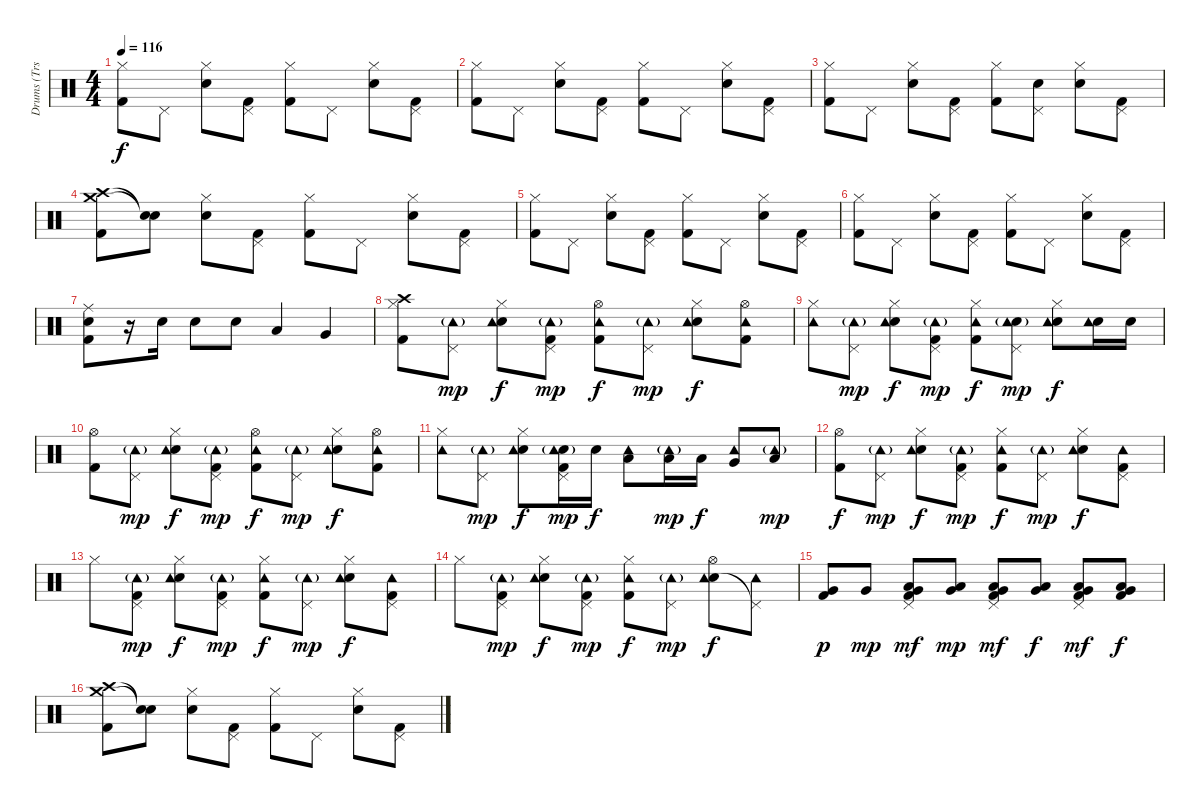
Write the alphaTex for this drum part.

\track ("Drums (Trs. 7-8A, 10A/7-8B, 10B, 12-13B)" "Drums (Trs") {mute instrument percussion}
\staff {score}
\articulation defaults
\ts (4 4)
\tempo 116
\clef neutral
\ks c
("Hi-Hat (closed)" "Kick (hit) 2").8{dy f} "Pedal Hi-Hat (hit)".8 ("Electric Snare (hit)" "Hi-Hat (closed)").8 ("Pedal Hi-Hat (hit)" "Kick (hit) 2").8 ("Hi-Hat (closed)" "Kick (hit) 2").8 "Pedal Hi-Hat (hit)".8 ("Electric Snare (hit)" "Hi-Hat (closed)").8 ("Pedal Hi-Hat (hit)" "Kick (hit) 2").8 |
("Hi-Hat (closed)" "Kick (hit) 2").8 "Pedal Hi-Hat (hit)".8 ("Electric Snare (hit)" "Hi-Hat (closed)").8 ("Pedal Hi-Hat (hit)" "Kick (hit) 2").8 ("Hi-Hat (closed)" "Kick (hit) 2").8 "Pedal Hi-Hat (hit)".8 ("Electric Snare (hit)" "Hi-Hat (closed)").8 ("Pedal Hi-Hat (hit)" "Kick (hit) 2").8 |
("Hi-Hat (closed)" "Kick (hit) 2").8 "Pedal Hi-Hat (hit)".8 ("Electric Snare (hit)" "Hi-Hat (closed)").8 ("Pedal Hi-Hat (hit)" "Kick (hit) 2").8 ("Hi-Hat (closed)" "Kick (hit) 2").8 ("Electric Snare (hit)" "Pedal Hi-Hat (hit)").8 ("Electric Snare (hit)" "Hi-Hat (closed)").8 ("Pedal Hi-Hat (hit)" "Kick (hit) 2").8 |
("Crash medium (hit)" "Crash high (hit)" "Kick (hit) 2").8 ("Snare (hit)"{t} "Snare (hit)"{t}).8 ("Electric Snare (hit)" "Hi-Hat (closed)").8 ("Pedal Hi-Hat (hit)" "Kick (hit) 2").8 ("Hi-Hat (closed)" "Kick (hit) 2").8 "Pedal Hi-Hat (hit)".8 ("Electric Snare (hit)" "Hi-Hat (closed)").8 ("Pedal Hi-Hat (hit)" "Kick (hit) 2").8 |
("Hi-Hat (closed)" "Kick (hit) 2").8 "Pedal Hi-Hat (hit)".8 ("Electric Snare (hit)" "Hi-Hat (closed)").8 ("Pedal Hi-Hat (hit)" "Kick (hit) 2").8 ("Hi-Hat (closed)" "Kick (hit) 2").8 "Pedal Hi-Hat (hit)".8 ("Electric Snare (hit)" "Hi-Hat (closed)").8 ("Pedal Hi-Hat (hit)" "Kick (hit) 2").8 |
("Hi-Hat (closed)" "Kick (hit) 2").8 "Pedal Hi-Hat (hit)".8 ("Electric Snare (hit)" "Hi-Hat (closed)").8 ("Pedal Hi-Hat (hit)" "Kick (hit) 2").8 ("Hi-Hat (closed)" "Kick (hit) 2").8 "Pedal Hi-Hat (hit)".8 ("Electric Snare (hit)" "Hi-Hat (closed)").8 ("Pedal Hi-Hat (hit)" "Kick (hit) 2").8 |
("Ride (middle)" "Electric Snare (hit)" "Kick (hit) 2").8 r.16 "Electric Snare (hit)".16 "Electric Snare (hit)".8 "Electric Snare (hit)".8 "Low Tom (hit)".4 "Very Low Tom (hit)".4 |
("Crash high (hit)" "Hi-Hat (closed)" "Kick (hit) 2").8 ("Pedal Hi-Hat (hit)" "Tambourine (hit)"{g}).8{dy mp} ("Electric Snare (hit)" "Hi-Hat (closed)" "Tambourine (hit)").8{dy f} ("Pedal Hi-Hat (hit)" "Tambourine (hit)"{g} "Kick (hit) 2").8{dy mp} ("Hi-Hat (open)" "Tambourine (hit)" "Kick (hit) 2").8{dy f} ("Pedal Hi-Hat (hit)" "Tambourine (hit)"{g}).8{dy mp} ("Electric Snare (hit)" "Hi-Hat (closed)" "Tambourine (hit)").8{dy f} ("Hi-Hat (open)" "Tambourine (hit)" "Kick (hit) 2").8 |
("Hi-Hat (closed)" "Tambourine (hit)").8 ("Pedal Hi-Hat (hit)" "Tambourine (hit)"{g}).8{dy mp} ("Electric Snare (hit)" "Hi-Hat (closed)" "Tambourine (hit)").8{dy f} ("Pedal Hi-Hat (hit)" "Tambourine (hit)"{g} "Kick (hit) 2").8{dy mp} ("Hi-Hat (closed)" "Tambourine (hit)" "Kick (hit) 2").8{dy f} ("Electric Snare (hit)" "Pedal Hi-Hat (hit)" "Tambourine (hit)"{g}).8{dy mp} ("Electric Snare (hit)" "Hi-Hat (closed)" "Tambourine (hit)").8{dy f} ("Electric Snare (hit)" "Tambourine (hit)").16 "Electric Snare (hit)".16 |
("Hi-Hat (open)" "Kick (hit) 2").8 ("Pedal Hi-Hat (hit)" "Tambourine (hit)"{g}).8{dy mp} ("Electric Snare (hit)" "Hi-Hat (closed)" "Tambourine (hit)").8{dy f} ("Pedal Hi-Hat (hit)" "Tambourine (hit)"{g} "Kick (hit) 2").8{dy mp} ("Hi-Hat (open)" "Tambourine (hit)" "Kick (hit) 2").8{dy f} ("Pedal Hi-Hat (hit)" "Tambourine (hit)"{g}).8{dy mp} ("Electric Snare (hit)" "Hi-Hat (closed)" "Tambourine (hit)").8{dy f} ("Hi-Hat (open)" "Tambourine (hit)" "Kick (hit) 2").8 |
("Hi-Hat (closed)" "Tambourine (hit)").8 ("Pedal Hi-Hat (hit)" "Tambourine (hit)"{g}).8{dy mp} ("Electric Snare (hit)" "Hi-Hat (closed)" "Tambourine (hit)").8{dy f} ("Electric Snare (hit)" "Pedal Hi-Hat (hit)" "Tambourine (hit)"{g} "Kick (hit) 2").16{dy mp} "Electric Snare (hit)".16{dy f} ("Tambourine (hit)" "Low Tom (hit)").8 ("Tambourine (hit)"{g} "Low Tom (hit)").16{dy mp} "Low Tom (hit)".16{dy f} ("Tambourine (hit)" "Very Low Tom (hit)").8 ("Tambourine (hit)"{g} "Low Floor Tom (hit)").8{dy mp} |
("Hi-Hat (open)" "Kick (hit) 2").8{dy f} ("Pedal Hi-Hat (hit)" "Tambourine (hit)"{g}).8{dy mp} ("Electric Snare (hit)" "Hi-Hat (closed)" "Tambourine (hit)").8{dy f} ("Pedal Hi-Hat (hit)" "Tambourine (hit)"{g} "Kick (hit) 2").8{dy mp} ("Hi-Hat (closed)" "Tambourine (hit)" "Kick (hit) 2").8{dy f} ("Pedal Hi-Hat (hit)" "Tambourine (hit)"{g}).8{dy mp} ("Electric Snare (hit)" "Hi-Hat (closed)" "Tambourine (hit)").8{dy f} ("Pedal Hi-Hat (hit)" "Tambourine (hit)" "Kick (hit) 2").8 |
"Hi-Hat (closed)".8 ("Pedal Hi-Hat (hit)" "Tambourine (hit)"{g} "Kick (hit) 2").8{dy mp} ("Electric Snare (hit)" "Hi-Hat (closed)" "Tambourine (hit)").8{dy f} ("Pedal Hi-Hat (hit)" "Tambourine (hit)"{g} "Kick (hit) 2").8{dy mp} ("Hi-Hat (closed)" "Tambourine (hit)" "Kick (hit) 2").8{dy f} ("Pedal Hi-Hat (hit)" "Tambourine (hit)"{g}).8{dy mp} ("Electric Snare (hit)" "Hi-Hat (closed)" "Tambourine (hit)").8{dy f} ("Pedal Hi-Hat (hit)" "Tambourine (hit)" "Kick (hit) 2").8 |
"Hi-Hat (closed)".8 ("Pedal Hi-Hat (hit)" "Tambourine (hit)"{g} "Kick (hit) 2").8{dy mp} ("Electric Snare (hit)" "Hi-Hat (closed)" "Tambourine (hit)").8{dy f} ("Pedal Hi-Hat (hit)" "Tambourine (hit)"{g} "Kick (hit) 2").8{dy mp} ("Hi-Hat (closed)" "Tambourine (hit)" "Kick (hit) 2").8{dy f} ("Pedal Hi-Hat (hit)" "Tambourine (hit)"{g}).8{dy mp} ("Electric Snare (hit)" "Hi-Hat (open)" "Tambourine (hit)").8{dy f} ("Pedal Hi-Hat (hit)"{t} "Tambourine (hit)").8 |
("Very Low Tom (hit)" "Kick (hit) 2").8{dy p} "Very Low Tom (hit)".8{dy mp} ("Pedal Hi-Hat (hit)" "Low Tom (hit)" "Very Low Tom (hit)" "Kick (hit) 2").8{dy mf} ("Low Tom (hit)" "Very Low Tom (hit)").8{dy mp} ("Pedal Hi-Hat (hit)" "Low Tom (hit)" "Very Low Tom (hit)" "Kick (hit) 2").8{dy mf} ("Low Tom (hit)" "Very Low Tom (hit)").8{dy f} ("Pedal Hi-Hat (hit)" "Low Tom (hit)" "Very Low Tom (hit)" "Kick (hit) 2").8{dy mf} ("Low Tom (hit)" "Very Low Tom (hit)" "Kick (hit) 2").8{dy f} |
("Crash medium (hit)" "Crash high (hit)" "Kick (hit) 2").8 ("Snare (hit)"{t} "Snare (hit)"{t}).8 ("Electric Snare (hit)" "Hi-Hat (closed)").8 ("Pedal Hi-Hat (hit)" "Kick (hit) 2").8 ("Hi-Hat (closed)" "Kick (hit) 2").8 "Pedal Hi-Hat (hit)".8 ("Electric Snare (hit)" "Hi-Hat (closed)").8 ("Pedal Hi-Hat (hit)" "Kick (hit) 2").8
